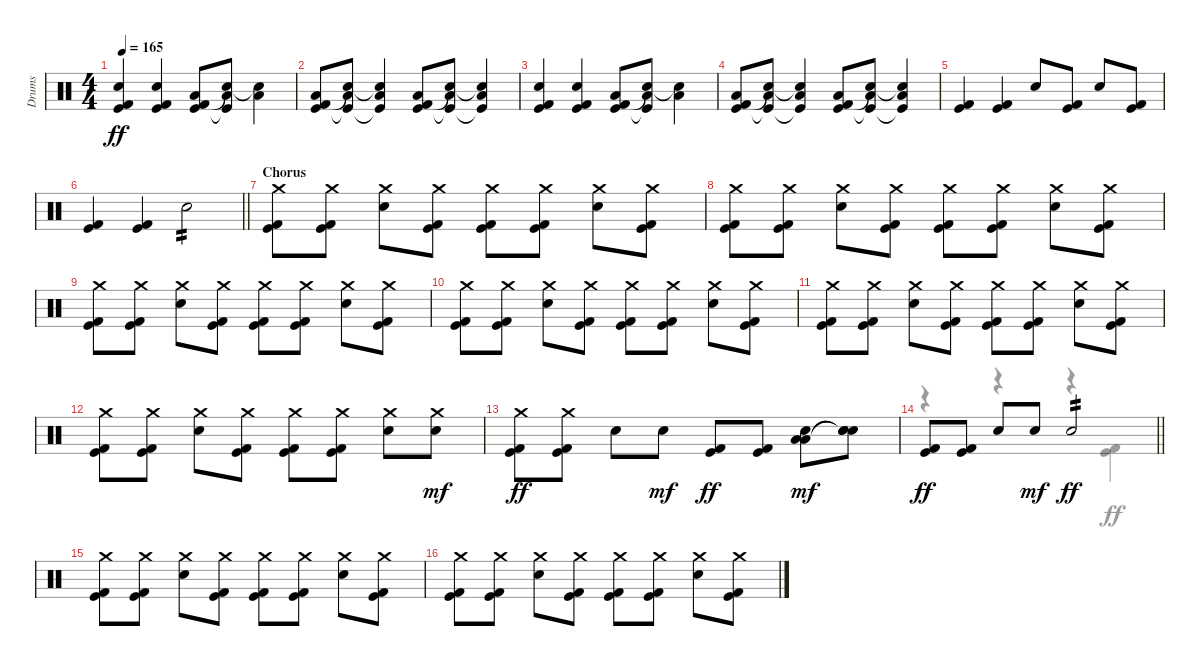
\track ("Drums" "Drums") {instrument percussion}
\staff
\articulation defaults
\voice
\ts (4 4)
\tempo 165
\clef neutral
\ks c
("Electric Snare (hit)" "Kick (hit) 2" "Kick (hit)").4{dy ff} ("Electric Snare (hit)" "Kick (hit) 2" "Kick (hit)").4 ("Low Tom (hit)" "Kick (hit) 2" "Kick (hit)").8 ("Low Floor Tom (hit)" "Snare (hit)"{t} "Kick (hit)"{t}).8 ("Low Tom (hit)" "Snare (hit)"{t}).4 |
("Low Tom (hit)" "Kick (hit) 2" "Kick (hit)").8 ("Low Floor Tom (hit)" "Snare (hit)"{t} "Kick (hit)"{t}).8 ("Low Tom (hit)" "Snare (hit)"{t} "Kick (hit)"{t}).4 ("Low Tom (hit)" "Kick (hit) 2" "Kick (hit)").8 ("Low Floor Tom (hit)" "Snare (hit)"{t} "Kick (hit)"{t}).8 ("Low Tom (hit)" "Snare (hit)"{t} "Kick (hit)"{t}).4 |
("Electric Snare (hit)" "Kick (hit) 2" "Kick (hit)").4 ("Electric Snare (hit)" "Kick (hit) 2" "Kick (hit)").4 ("Low Tom (hit)" "Kick (hit) 2" "Kick (hit)").8 ("Low Floor Tom (hit)" "Snare (hit)"{t} "Kick (hit)"{t}).8 ("Low Tom (hit)" "Snare (hit)"{t}).4 |
("Low Tom (hit)" "Kick (hit) 2" "Kick (hit)").8 ("Low Floor Tom (hit)" "Snare (hit)"{t} "Kick (hit)"{t}).8 ("Low Tom (hit)" "Snare (hit)"{t} "Kick (hit)"{t}).4 ("Low Tom (hit)" "Kick (hit) 2" "Kick (hit)").8 ("Low Floor Tom (hit)" "Snare (hit)"{t} "Kick (hit)"{t}).8 ("Low Tom (hit)" "Snare (hit)"{t} "Kick (hit)"{t}).4 |
("Kick (hit) 2" "Kick (hit)").4 ("Kick (hit) 2" "Kick (hit)").4 "Electric Snare (hit)".8 ("Kick (hit) 2" "Kick (hit)").8 "Electric Snare (hit)".8 ("Kick (hit) 2" "Kick (hit)").8 |
\barLineRight lightlight
("Kick (hit) 2" "Kick (hit)").4 ("Kick (hit) 2" "Kick (hit)").4 "Electric Snare (hit)".2{tp 2} |
\section ("" "Chorus")
("Crash medium (hit)" "Kick (hit) 2" "Kick (hit)").8 ("Crash medium (hit)" "Kick (hit) 2" "Kick (hit)").8 ("Crash medium (hit)" "Electric Snare (hit)").8 ("Crash medium (hit)" "Kick (hit) 2" "Kick (hit)").8 ("Crash medium (hit)" "Kick (hit) 2" "Kick (hit)").8 ("Crash medium (hit)" "Kick (hit) 2" "Kick (hit)").8 ("Crash medium (hit)" "Electric Snare (hit)").8 ("Crash medium (hit)" "Kick (hit) 2" "Kick (hit)").8 |
("Crash medium (hit)" "Kick (hit) 2" "Kick (hit)").8 ("Crash medium (hit)" "Kick (hit) 2" "Kick (hit)").8 ("Crash medium (hit)" "Electric Snare (hit)").8 ("Crash medium (hit)" "Kick (hit) 2" "Kick (hit)").8 ("Crash medium (hit)" "Kick (hit) 2" "Kick (hit)").8 ("Crash medium (hit)" "Kick (hit) 2" "Kick (hit)").8 ("Crash medium (hit)" "Electric Snare (hit)").8 ("Crash medium (hit)" "Kick (hit) 2" "Kick (hit)").8 |
("Crash medium (hit)" "Kick (hit) 2" "Kick (hit)").8 ("Crash medium (hit)" "Kick (hit) 2" "Kick (hit)").8 ("Crash medium (hit)" "Electric Snare (hit)").8 ("Crash medium (hit)" "Kick (hit) 2" "Kick (hit)").8 ("Crash medium (hit)" "Kick (hit) 2" "Kick (hit)").8 ("Crash medium (hit)" "Kick (hit) 2" "Kick (hit)").8 ("Crash medium (hit)" "Electric Snare (hit)").8 ("Crash medium (hit)" "Kick (hit) 2" "Kick (hit)").8 |
("Crash medium (hit)" "Kick (hit) 2" "Kick (hit)").8 ("Crash medium (hit)" "Kick (hit) 2" "Kick (hit)").8 ("Crash medium (hit)" "Electric Snare (hit)").8 ("Crash medium (hit)" "Kick (hit) 2" "Kick (hit)").8 ("Crash medium (hit)" "Kick (hit) 2" "Kick (hit)").8 ("Crash medium (hit)" "Kick (hit) 2" "Kick (hit)").8 ("Crash medium (hit)" "Electric Snare (hit)").8 ("Crash medium (hit)" "Kick (hit) 2" "Kick (hit)").8 |
("Crash medium (hit)" "Kick (hit) 2" "Kick (hit)").8 ("Crash medium (hit)" "Kick (hit) 2" "Kick (hit)").8 ("Crash medium (hit)" "Electric Snare (hit)").8 ("Crash medium (hit)" "Kick (hit) 2" "Kick (hit)").8 ("Crash medium (hit)" "Kick (hit) 2" "Kick (hit)").8 ("Crash medium (hit)" "Kick (hit) 2" "Kick (hit)").8 ("Crash medium (hit)" "Electric Snare (hit)").8 ("Crash medium (hit)" "Kick (hit) 2" "Kick (hit)").8 |
("Crash medium (hit)" "Kick (hit) 2" "Kick (hit)").8 ("Crash medium (hit)" "Kick (hit) 2" "Kick (hit)").8 ("Crash medium (hit)" "Electric Snare (hit)").8 ("Crash medium (hit)" "Kick (hit) 2" "Kick (hit)").8 ("Crash medium (hit)" "Kick (hit) 2" "Kick (hit)").8 ("Crash medium (hit)" "Kick (hit) 2" "Kick (hit)").8 ("Crash medium (hit)" "Electric Snare (hit)").8 ("Crash medium (hit)" "Electric Snare (hit)").8{dy mf} |
("Crash medium (hit)" "Kick (hit) 2" "Kick (hit)").8{dy ff} ("Crash medium (hit)" "Kick (hit) 2" "Kick (hit)").8 "Electric Snare (hit)".8 "Electric Snare (hit)".8{dy mf} ("Kick (hit) 2" "Kick (hit)").8{dy ff} ("Kick (hit) 2" "Kick (hit)").8 ("Electric Snare (hit)" "Low Tom (hit)" "Low Floor Tom (hit)").8{dy mf} ("Electric Snare (hit)" "Snare (hit)"{t} "Snare (hit)"{t}).8 |
\barLineRight lightlight
("Kick (hit) 2" "Kick (hit)").8{dy ff} ("Kick (hit) 2" "Kick (hit)").8 "Electric Snare (hit)".8 "Electric Snare (hit)".8{dy mf} "Electric Snare (hit)".2{tp 2 dy ff} |
("Crash medium (hit)" "Kick (hit) 2" "Kick (hit)").8 ("Crash medium (hit)" "Kick (hit) 2" "Kick (hit)").8 ("Crash medium (hit)" "Electric Snare (hit)").8 ("Crash medium (hit)" "Kick (hit) 2" "Kick (hit)").8 ("Crash medium (hit)" "Kick (hit) 2" "Kick (hit)").8 ("Crash medium (hit)" "Kick (hit) 2" "Kick (hit)").8 ("Crash medium (hit)" "Electric Snare (hit)").8 ("Crash medium (hit)" "Kick (hit) 2" "Kick (hit)").8 |
("Crash medium (hit)" "Kick (hit) 2" "Kick (hit)").8 ("Crash medium (hit)" "Kick (hit) 2" "Kick (hit)").8 ("Crash medium (hit)" "Electric Snare (hit)").8 ("Crash medium (hit)" "Kick (hit) 2" "Kick (hit)").8 ("Crash medium (hit)" "Kick (hit) 2" "Kick (hit)").8 ("Crash medium (hit)" "Kick (hit) 2" "Kick (hit)").8 ("Crash medium (hit)" "Electric Snare (hit)").8 ("Crash medium (hit)" "Kick (hit) 2" "Kick (hit)").8
\voice
\clef neutral
\ottava regular
\simile none
\ks c
|
|
|
|
|
\barLineRight lightlight
|
|
|
|
|
|
|
|
\barLineRight lightlight
r.4 r.4 r.4 ("Kick (hit)" "Kick (hit) 2").4 |
|
